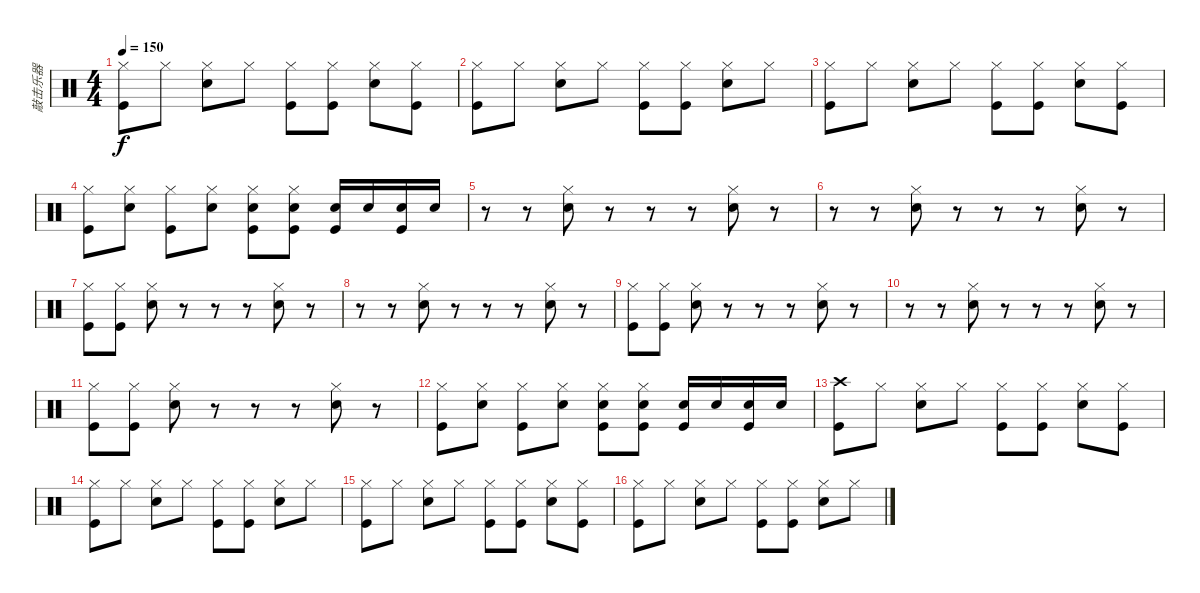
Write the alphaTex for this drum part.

\track ("敲击乐器" "敲击乐器") {instrument percussion}
\staff {score}
\articulation defaults
\ts (4 4)
\tempo 150
\clef neutral
\ks c
("Hi-Hat (closed)" "Kick (hit)").8{dy f} "Hi-Hat (closed)".8 ("Hi-Hat (closed)" "Electric Snare (hit)").8 "Hi-Hat (closed)".8 ("Hi-Hat (closed)" "Kick (hit)").8 ("Hi-Hat (closed)" "Kick (hit)").8 ("Hi-Hat (closed)" "Electric Snare (hit)").8 ("Hi-Hat (closed)" "Kick (hit)").8 |
("Hi-Hat (closed)" "Kick (hit)").8 "Hi-Hat (closed)".8 ("Hi-Hat (closed)" "Electric Snare (hit)").8 "Hi-Hat (closed)".8 ("Hi-Hat (closed)" "Kick (hit)").8 ("Hi-Hat (closed)" "Kick (hit)").8 ("Hi-Hat (closed)" "Electric Snare (hit)").8 "Hi-Hat (closed)".8 |
("Hi-Hat (closed)" "Kick (hit)").8 "Hi-Hat (closed)".8 ("Hi-Hat (closed)" "Electric Snare (hit)").8 "Hi-Hat (closed)".8 ("Hi-Hat (closed)" "Kick (hit)").8 ("Hi-Hat (closed)" "Kick (hit)").8 ("Hi-Hat (closed)" "Electric Snare (hit)").8 ("Hi-Hat (closed)" "Kick (hit)").8 |
("Hi-Hat (closed)" "Kick (hit)").8 ("Hi-Hat (closed)" "Electric Snare (hit)").8 ("Hi-Hat (closed)" "Kick (hit)").8 ("Hi-Hat (closed)" "Electric Snare (hit)").8 ("Hi-Hat (closed)" "Electric Snare (hit)" "Kick (hit)").8 ("Hi-Hat (closed)" "Electric Snare (hit)" "Kick (hit)").8 ("Electric Snare (hit)" "Kick (hit)").16 "Electric Snare (hit)".16 ("Electric Snare (hit)" "Kick (hit)").16 "Electric Snare (hit)".16 |
r.8 r.8 ("Hi-Hat (closed)" "Electric Snare (hit)").8 r.8 r.8 r.8 ("Hi-Hat (closed)" "Electric Snare (hit)").8 r.8 |
r.8 r.8 ("Hi-Hat (closed)" "Electric Snare (hit)").8 r.8 r.8 r.8 ("Hi-Hat (closed)" "Electric Snare (hit)").8 r.8 |
("Hi-Hat (closed)" "Kick (hit)").8 ("Hi-Hat (closed)" "Kick (hit)").8 ("Hi-Hat (closed)" "Electric Snare (hit)").8 r.8 r.8 r.8 ("Hi-Hat (closed)" "Electric Snare (hit)").8 r.8 |
r.8 r.8 ("Hi-Hat (closed)" "Electric Snare (hit)").8 r.8 r.8 r.8 ("Hi-Hat (closed)" "Electric Snare (hit)").8 r.8 |
("Hi-Hat (closed)" "Kick (hit)").8 ("Hi-Hat (closed)" "Kick (hit)").8 ("Hi-Hat (closed)" "Electric Snare (hit)").8 r.8 r.8 r.8 ("Hi-Hat (closed)" "Electric Snare (hit)").8 r.8 |
r.8 r.8 ("Hi-Hat (closed)" "Electric Snare (hit)").8 r.8 r.8 r.8 ("Hi-Hat (closed)" "Electric Snare (hit)").8 r.8 |
("Hi-Hat (closed)" "Kick (hit)").8 ("Hi-Hat (closed)" "Kick (hit)").8 ("Hi-Hat (closed)" "Electric Snare (hit)").8 r.8 r.8 r.8 ("Hi-Hat (closed)" "Electric Snare (hit)").8 r.8 |
("Hi-Hat (closed)" "Kick (hit)").8 ("Hi-Hat (closed)" "Electric Snare (hit)").8 ("Hi-Hat (closed)" "Kick (hit)").8 ("Hi-Hat (closed)" "Electric Snare (hit)").8 ("Hi-Hat (closed)" "Electric Snare (hit)" "Kick (hit)").8 ("Hi-Hat (closed)" "Electric Snare (hit)" "Kick (hit)").8 ("Electric Snare (hit)" "Kick (hit)").16 "Electric Snare (hit)".16 ("Electric Snare (hit)" "Kick (hit)").16 "Electric Snare (hit)".16 |
("Crash high (hit)" "Kick (hit)").8 "Hi-Hat (closed)".8 ("Hi-Hat (closed)" "Electric Snare (hit)").8 "Hi-Hat (closed)".8 ("Hi-Hat (closed)" "Kick (hit)").8 ("Hi-Hat (closed)" "Kick (hit)").8 ("Hi-Hat (closed)" "Electric Snare (hit)").8 ("Hi-Hat (closed)" "Kick (hit)").8 |
("Hi-Hat (closed)" "Kick (hit)").8 "Hi-Hat (closed)".8 ("Hi-Hat (closed)" "Electric Snare (hit)").8 "Hi-Hat (closed)".8 ("Hi-Hat (closed)" "Kick (hit)").8 ("Hi-Hat (closed)" "Kick (hit)").8 ("Hi-Hat (closed)" "Electric Snare (hit)").8 "Hi-Hat (closed)".8 |
("Hi-Hat (closed)" "Kick (hit)").8 "Hi-Hat (closed)".8 ("Hi-Hat (closed)" "Electric Snare (hit)").8 "Hi-Hat (closed)".8 ("Hi-Hat (closed)" "Kick (hit)").8 ("Hi-Hat (closed)" "Kick (hit)").8 ("Hi-Hat (closed)" "Electric Snare (hit)").8 ("Hi-Hat (closed)" "Kick (hit)").8 |
("Hi-Hat (closed)" "Kick (hit)").8 "Hi-Hat (closed)".8 ("Hi-Hat (closed)" "Electric Snare (hit)").8 "Hi-Hat (closed)".8 ("Hi-Hat (closed)" "Kick (hit)").8 ("Hi-Hat (closed)" "Kick (hit)").8 ("Hi-Hat (closed)" "Electric Snare (hit)").8 "Hi-Hat (closed)".8
